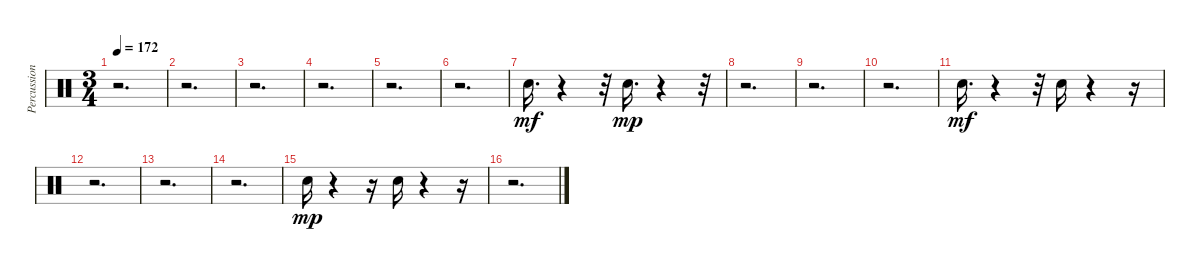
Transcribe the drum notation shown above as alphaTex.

\track ("Percussion" "Percussion") {instrument percussion}
\staff {score}
\articulation defaults
\ts (3 4)
\tempo 172
\clef neutral
\ks c
r.2{d dy f} |
r.2{d} |
r.2{d} |
r.2{d} |
r.2{d} |
r.2{d} |
"Hand Clap (hit)".16{d dy mf} r.4 r.32 "Hand Clap (hit)".16{d dy mp} r.4 r.32 |
r.2{d} |
r.2{d} |
r.2{d} |
"Hand Clap (hit)".16{d dy mf} r.4 r.32 "Hand Clap (hit)".16 r.4 r.16 |
r.2{d} |
r.2{d} |
r.2{d} |
"Hand Clap (hit)".16{dy mp} r.4 r.16 "Hand Clap (hit)".16 r.4 r.16 |
r.2{d}
